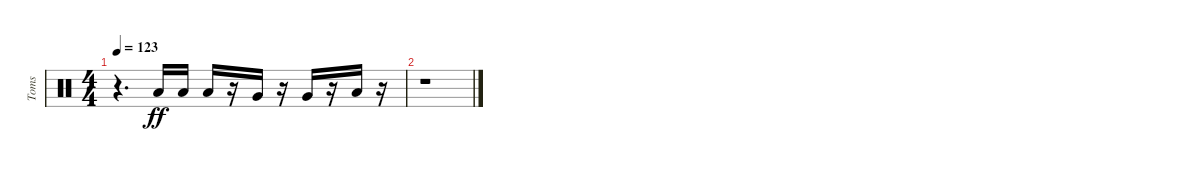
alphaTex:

\track ("Toms" "Toms") {instrument percussion}
\staff {score}
\articulation defaults
\ts (4 4)
\tempo 123
\clef neutral
\ks c
r.4{d dy ff} "Low Tom (hit)".16 "Low Tom (hit)".16 "Low Tom (hit)".16 r.16 "Very Low Tom (hit)".16 r.16 "Very Low Tom (hit)".16 r.16 "Low Floor Tom (hit)".16 r.16 |
r.1
